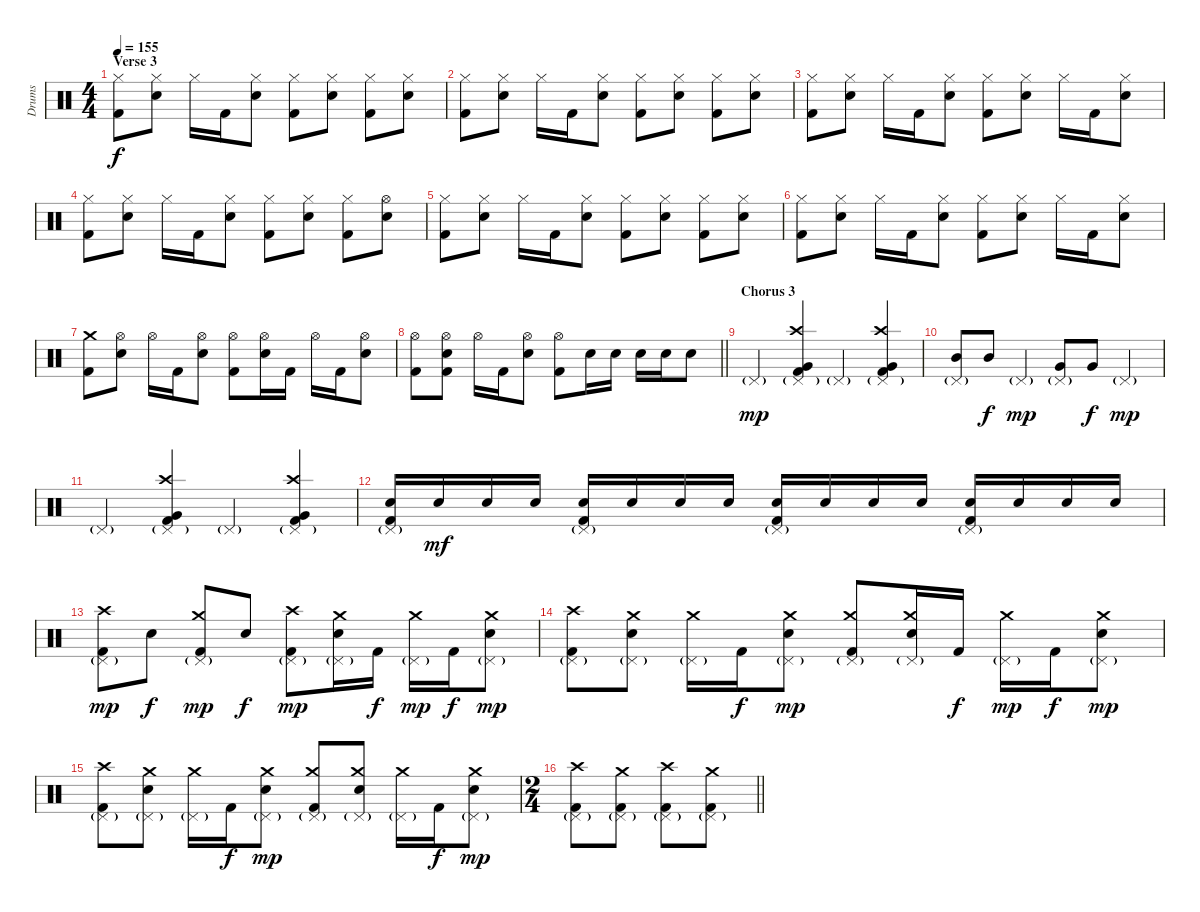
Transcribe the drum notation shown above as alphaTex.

\track ("Drums" "Drums") {instrument percussion}
\staff {score}
\articulation defaults
\ts (4 4)
\section ("" "Verse 3")
\tempo 155
\clef neutral
\ks c
("Hi-Hat (closed)" "Kick (hit) 2").8{dy f} ("Hi-Hat (closed)" "Electric Snare (hit)").8 "Hi-Hat (closed)".16 "Kick (hit) 2".16 ("Hi-Hat (closed)" "Electric Snare (hit)").8 ("Hi-Hat (closed)" "Kick (hit) 2").8 ("Hi-Hat (closed)" "Electric Snare (hit)").8 ("Hi-Hat (closed)" "Kick (hit) 2").8 ("Hi-Hat (closed)" "Electric Snare (hit)").8 |
("Hi-Hat (closed)" "Kick (hit) 2").8 ("Hi-Hat (closed)" "Electric Snare (hit)").8 "Hi-Hat (closed)".16 "Kick (hit) 2".16 ("Hi-Hat (closed)" "Electric Snare (hit)").8 ("Hi-Hat (closed)" "Kick (hit) 2").8 ("Hi-Hat (closed)" "Electric Snare (hit)").8 ("Hi-Hat (closed)" "Kick (hit) 2").8 ("Hi-Hat (closed)" "Electric Snare (hit)").8 |
("Hi-Hat (closed)" "Kick (hit) 2").8 ("Hi-Hat (closed)" "Electric Snare (hit)").8 "Hi-Hat (closed)".16 "Kick (hit) 2".16 ("Hi-Hat (closed)" "Electric Snare (hit)").8 ("Hi-Hat (closed)" "Kick (hit) 2").8 ("Hi-Hat (closed)" "Electric Snare (hit)").8 "Hi-Hat (closed)".16 "Kick (hit) 2".16 ("Hi-Hat (closed)" "Electric Snare (hit)").8 |
("Hi-Hat (closed)" "Kick (hit) 2").8 ("Hi-Hat (closed)" "Electric Snare (hit)").8 "Hi-Hat (closed)".16 "Kick (hit) 2".16 ("Hi-Hat (closed)" "Electric Snare (hit)").8 ("Hi-Hat (closed)" "Kick (hit) 2").8 ("Hi-Hat (closed)" "Electric Snare (hit)").8 ("Hi-Hat (closed)" "Kick (hit) 2").8 ("Hi-Hat (open)" "Electric Snare (hit)").8 |
("Hi-Hat (closed)" "Kick (hit) 2").8 ("Hi-Hat (closed)" "Electric Snare (hit)").8 "Hi-Hat (closed)".16 "Kick (hit) 2".16 ("Hi-Hat (closed)" "Electric Snare (hit)").8 ("Hi-Hat (closed)" "Kick (hit) 2").8 ("Hi-Hat (closed)" "Electric Snare (hit)").8 ("Hi-Hat (closed)" "Kick (hit) 2").8 ("Hi-Hat (closed)" "Electric Snare (hit)").8 |
("Hi-Hat (closed)" "Kick (hit) 2").8 ("Hi-Hat (closed)" "Electric Snare (hit)").8 "Hi-Hat (closed)".16 "Kick (hit) 2".16 ("Hi-Hat (closed)" "Electric Snare (hit)").8 ("Hi-Hat (closed)" "Kick (hit) 2").8 ("Hi-Hat (closed)" "Electric Snare (hit)").8 "Hi-Hat (closed)".16 "Kick (hit) 2".16 ("Hi-Hat (closed)" "Electric Snare (hit)").8 |
("Crash medium (hit)" "Kick (hit) 2").8 ("Hi-Hat (open)" "Electric Snare (hit)").8 "Hi-Hat (open)".16 "Kick (hit) 2".16 ("Hi-Hat (open)" "Electric Snare (hit)").8 ("Hi-Hat (open)" "Kick (hit) 2").8 ("Hi-Hat (open)" "Electric Snare (hit)").16 "Kick (hit) 2".16 "Hi-Hat (open)".16 "Kick (hit) 2".16 ("Hi-Hat (open)" "Electric Snare (hit)").8 |
\barLineRight lightlight
("Hi-Hat (open)" "Kick (hit) 2").8 ("Hi-Hat (open)" "Electric Snare (hit)" "Kick (hit) 2").8 "Hi-Hat (open)".16 "Kick (hit) 2".16 ("Hi-Hat (open)" "Electric Snare (hit)").8 ("Hi-Hat (open)" "Kick (hit) 2").8 "Electric Snare (hit)".16 "Electric Snare (hit)".16 "Electric Snare (hit)".16 "Electric Snare (hit)".16 "Electric Snare (hit)".8 |
\section ("" "Chorus 3")
"Pedal Hi-Hat (hit)"{g}.4{dy mp} ("Crash high (hit)" "Pedal Hi-Hat (hit)"{g} "Very Low Tom (hit)" "Kick (hit) 2").4 "Pedal Hi-Hat (hit)"{g}.4 ("Crash high (hit)" "Pedal Hi-Hat (hit)"{g} "Very Low Tom (hit)" "Kick (hit) 2").4 |
("Pedal Hi-Hat (hit)"{g} "Mid Tom (hit)").8 "Mid Tom (hit)".8{dy f} "Pedal Hi-Hat (hit)"{g}.4{dy mp} ("Pedal Hi-Hat (hit)"{g} "Very Low Tom (hit)").8 "Very Low Tom (hit)".8{dy f} "Pedal Hi-Hat (hit)"{g}.4{dy mp} |
"Pedal Hi-Hat (hit)"{g}.4 ("Crash high (hit)" "Pedal Hi-Hat (hit)"{g} "Very Low Tom (hit)" "Kick (hit) 2").4 "Pedal Hi-Hat (hit)"{g}.4 ("Crash high (hit)" "Pedal Hi-Hat (hit)"{g} "Very Low Tom (hit)" "Kick (hit) 2").4 |
("Pedal Hi-Hat (hit)"{g} "Electric Snare (hit)" "Kick (hit) 2").16 "Electric Snare (hit)".16{dy mf} "Electric Snare (hit)".16 "Electric Snare (hit)".16 ("Pedal Hi-Hat (hit)"{g} "Electric Snare (hit)" "Kick (hit) 2").16 "Electric Snare (hit)".16 "Electric Snare (hit)".16 "Electric Snare (hit)".16 ("Pedal Hi-Hat (hit)"{g} "Electric Snare (hit)" "Kick (hit) 2").16 "Electric Snare (hit)".16 "Electric Snare (hit)".16 "Electric Snare (hit)".16 ("Pedal Hi-Hat (hit)"{g} "Electric Snare (hit)" "Kick (hit) 2").16 "Electric Snare (hit)".16 "Electric Snare (hit)".16 "Electric Snare (hit)".16 |
("Crash high (hit)" "Pedal Hi-Hat (hit)"{g} "Kick (hit) 2").8{dy mp} "Electric Snare (hit)".8{dy f} ("Crash medium (hit)" "Pedal Hi-Hat (hit)"{g} "Kick (hit) 2").8{dy mp} "Electric Snare (hit)".8{dy f} ("Crash high (hit)" "Pedal Hi-Hat (hit)"{g} "Kick (hit) 2").8{dy mp} ("Crash medium (hit)" "Pedal Hi-Hat (hit)"{g} "Electric Snare (hit)").16 "Kick (hit) 2".16{dy f} ("Crash medium (hit)" "Pedal Hi-Hat (hit)"{g}).16{dy mp} "Kick (hit) 2".16{dy f} ("Crash medium (hit)" "Pedal Hi-Hat (hit)"{g} "Electric Snare (hit)").8{dy mp} |
("Crash high (hit)" "Pedal Hi-Hat (hit)"{g} "Kick (hit) 2").8 ("Crash medium (hit)" "Pedal Hi-Hat (hit)"{g} "Electric Snare (hit)").8 ("Crash medium (hit)" "Pedal Hi-Hat (hit)"{g}).16 "Kick (hit) 2".16{dy f} ("Crash medium (hit)" "Pedal Hi-Hat (hit)"{g} "Electric Snare (hit)").8{dy mp} ("Crash medium (hit)" "Pedal Hi-Hat (hit)"{g} "Kick (hit) 2").8 ("Crash medium (hit)" "Pedal Hi-Hat (hit)"{g} "Electric Snare (hit)").16 "Kick (hit) 2".16{dy f} ("Crash medium (hit)" "Pedal Hi-Hat (hit)"{g}).16{dy mp} "Kick (hit) 2".16{dy f} ("Crash medium (hit)" "Pedal Hi-Hat (hit)"{g} "Electric Snare (hit)").8{dy mp} |
("Crash high (hit)" "Pedal Hi-Hat (hit)"{g} "Kick (hit) 2").8 ("Crash medium (hit)" "Pedal Hi-Hat (hit)"{g} "Electric Snare (hit)").8 ("Crash medium (hit)" "Pedal Hi-Hat (hit)"{g}).16 "Kick (hit) 2".16{dy f} ("Crash medium (hit)" "Pedal Hi-Hat (hit)"{g} "Electric Snare (hit)").8{dy mp} ("Crash medium (hit)" "Pedal Hi-Hat (hit)"{g} "Kick (hit) 2").8 ("Crash medium (hit)" "Pedal Hi-Hat (hit)"{g} "Electric Snare (hit)").8 ("Crash medium (hit)" "Pedal Hi-Hat (hit)"{g}).16 "Kick (hit) 2".16{dy f} ("Crash medium (hit)" "Pedal Hi-Hat (hit)"{g} "Electric Snare (hit)").8{dy mp} |
\ts (2 4)
\barLineRight lightlight
("Crash high (hit)" "Pedal Hi-Hat (hit)"{g} "Kick (hit) 2").8 ("Crash medium (hit)" "Pedal Hi-Hat (hit)"{g} "Kick (hit) 2").8 ("Crash high (hit)" "Pedal Hi-Hat (hit)"{g} "Kick (hit) 2").8 ("Crash medium (hit)" "Pedal Hi-Hat (hit)"{g} "Kick (hit) 2").8
